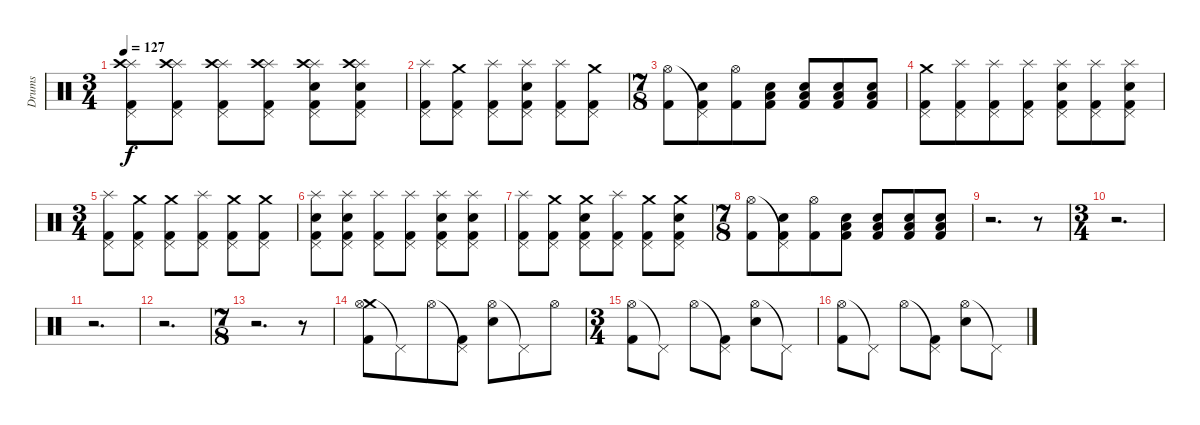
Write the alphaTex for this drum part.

\track ("Drums" "Drums") {instrument percussion}
\staff {score}
\articulation defaults
\ts (3 4)
\tempo 127
\clef neutral
\ks c
("Splash (hit)" "Crash high (hit)" "Pedal Hi-Hat (hit)" "Kick (hit) 2").8{dy f} ("Splash (hit)" "Crash high (hit)" "Pedal Hi-Hat (hit)" "Kick (hit) 2").8 ("Splash (hit)" "Crash high (hit)" "Pedal Hi-Hat (hit)" "Kick (hit) 2").8 ("Splash (hit)" "Crash high (hit)" "Pedal Hi-Hat (hit)" "Kick (hit) 2").8 ("Splash (hit)" "Crash high (hit)" "Pedal Hi-Hat (hit)" "Electric Snare (hit)" "Kick (hit) 2").8 ("Splash (hit)" "Crash high (hit)" "Pedal Hi-Hat (hit)" "Electric Snare (hit)" "Kick (hit) 2").8 |
("Splash (hit)" "Pedal Hi-Hat (hit)" "Kick (hit) 2").8 ("Crash medium (hit)" "Pedal Hi-Hat (hit)" "Kick (hit) 2").8 ("Splash (hit)" "Pedal Hi-Hat (hit)" "Kick (hit) 2").8 ("Splash (hit)" "Pedal Hi-Hat (hit)" "Electric Snare (hit)" "Kick (hit) 2").8 ("Splash (hit)" "Pedal Hi-Hat (hit)" "Kick (hit) 2").8 ("Crash medium (hit)" "Pedal Hi-Hat (hit)" "Kick (hit) 2").8 |
\ts (7 8)
("Hi-Hat (open)" "Kick (hit) 2").8 ("Pedal Hi-Hat (hit)"{t} "Electric Snare (hit)" "Kick (hit) 2").8 ("Hi-Hat (open)" "Kick (hit) 2").8 ("Low Tom (hit)" "Electric Snare (hit)" "Kick (hit) 2").8 ("Low Tom (hit)" "Electric Snare (hit)" "Kick (hit) 2").8 ("Low Tom (hit)" "Electric Snare (hit)" "Kick (hit) 2").8 ("Low Tom (hit)" "Electric Snare (hit)" "Kick (hit) 2").8 |
("Crash medium (hit)" "Pedal Hi-Hat (hit)" "Kick (hit) 2").8 ("Splash (hit)" "Pedal Hi-Hat (hit)" "Kick (hit) 2").8 ("Splash (hit)" "Pedal Hi-Hat (hit)" "Kick (hit) 2").8 ("Splash (hit)" "Pedal Hi-Hat (hit)" "Kick (hit) 2").8 ("Splash (hit)" "Pedal Hi-Hat (hit)" "Electric Snare (hit)" "Kick (hit) 2").8 ("Splash (hit)" "Pedal Hi-Hat (hit)" "Kick (hit) 2").8 ("Splash (hit)" "Pedal Hi-Hat (hit)" "Electric Snare (hit)" "Kick (hit) 2").8 |
\ts (3 4)
("Splash (hit)" "Pedal Hi-Hat (hit)" "Kick (hit) 2").8 ("Crash medium (hit)" "Pedal Hi-Hat (hit)" "Kick (hit) 2").8 ("Crash medium (hit)" "Pedal Hi-Hat (hit)" "Kick (hit) 2").8 ("Splash (hit)" "Pedal Hi-Hat (hit)" "Kick (hit) 2").8 ("Crash medium (hit)" "Pedal Hi-Hat (hit)" "Kick (hit) 2").8 ("Crash medium (hit)" "Pedal Hi-Hat (hit)" "Kick (hit) 2").8 |
("Splash (hit)" "Pedal Hi-Hat (hit)" "Electric Snare (hit)" "Kick (hit) 2").8 ("Splash (hit)" "Pedal Hi-Hat (hit)" "Electric Snare (hit)" "Kick (hit) 2").8 ("Splash (hit)" "Pedal Hi-Hat (hit)" "Kick (hit) 2").8 ("Splash (hit)" "Pedal Hi-Hat (hit)" "Kick (hit) 2").8 ("Splash (hit)" "Pedal Hi-Hat (hit)" "Electric Snare (hit)" "Kick (hit) 2").8 ("Splash (hit)" "Pedal Hi-Hat (hit)" "Electric Snare (hit)" "Kick (hit) 2").8 |
("Splash (hit)" "Pedal Hi-Hat (hit)" "Kick (hit) 2").8 ("Crash medium (hit)" "Pedal Hi-Hat (hit)" "Kick (hit) 2").8 ("Crash medium (hit)" "Pedal Hi-Hat (hit)" "Electric Snare (hit)" "Kick (hit) 2").8 ("Splash (hit)" "Pedal Hi-Hat (hit)" "Kick (hit) 2").8 ("Crash medium (hit)" "Pedal Hi-Hat (hit)" "Kick (hit) 2").8 ("Crash medium (hit)" "Pedal Hi-Hat (hit)" "Electric Snare (hit)" "Kick (hit) 2").8 |
\ts (7 8)
("Hi-Hat (open)" "Kick (hit) 2").8 ("Pedal Hi-Hat (hit)"{t} "Electric Snare (hit)" "Kick (hit) 2").8 ("Hi-Hat (open)" "Kick (hit) 2").8 ("Low Tom (hit)" "Electric Snare (hit)" "Kick (hit) 2").8 ("Low Tom (hit)" "Electric Snare (hit)" "Kick (hit) 2").8 ("Low Tom (hit)" "Electric Snare (hit)" "Kick (hit) 2").8 ("Low Tom (hit)" "Electric Snare (hit)" "Kick (hit) 2").8 |
r.2{d} r.8 |
\ts (3 4)
r.2{d} |
r.2{d} |
r.2{d} |
\ts (7 8)
r.2{d} r.8 |
("Crash medium (hit)" "Hi-Hat (open)" "Kick (hit) 2").8 "Pedal Hi-Hat (hit)"{t}.8 "Hi-Hat (open)".8 ("Pedal Hi-Hat (hit)"{t} "Kick (hit) 2").8 ("Hi-Hat (open)" "Electric Snare (hit)").8 "Pedal Hi-Hat (hit)"{t}.8 "Hi-Hat (open)".8 |
\ts (3 4)
("Hi-Hat (open)" "Kick (hit) 2").8 "Pedal Hi-Hat (hit)"{t}.8 "Hi-Hat (open)".8 ("Pedal Hi-Hat (hit)"{t} "Kick (hit) 2").8 ("Hi-Hat (open)" "Electric Snare (hit)").8 "Pedal Hi-Hat (hit)"{t}.8 |
("Hi-Hat (open)" "Kick (hit) 2").8 "Pedal Hi-Hat (hit)"{t}.8 "Hi-Hat (open)".8 ("Pedal Hi-Hat (hit)"{t} "Kick (hit) 2").8 ("Hi-Hat (open)" "Electric Snare (hit)").8 "Pedal Hi-Hat (hit)"{t}.8
